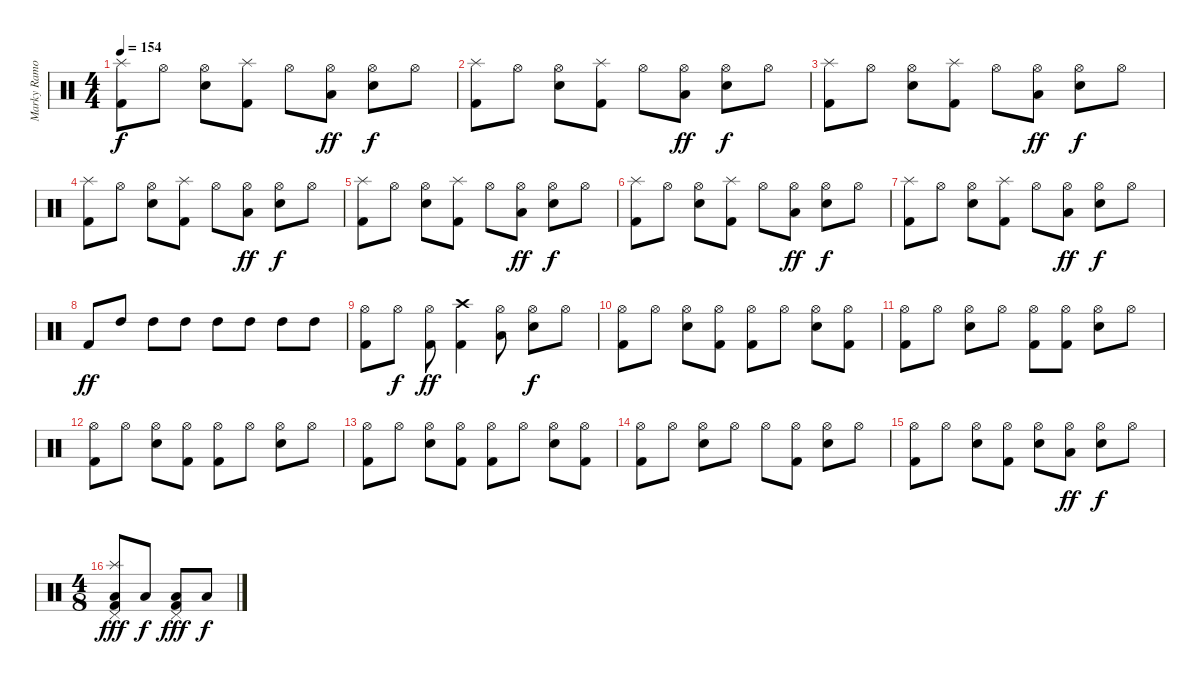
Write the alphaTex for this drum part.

\track ("Marky Ramone - Drums" "Marky Ramo") {instrument percussion}
\staff {score}
\articulation defaults
\ts (4 4)
\tempo 154
\clef neutral
\ks c
("Kick (hit) 2" "Splash (hit)").8{dy f} "Hi-Hat (open)".8 ("Snare (hit) 2" "Hi-Hat (open)").8 ("Kick (hit) 2" "Splash (hit)").8 "Hi-Hat (open)".8 ("Low Floor Tom (hit)" "Hi-Hat (open)").8{dy ff} ("Snare (hit) 2" "Hi-Hat (open)").8{dy f} "Hi-Hat (open)".8 |
("Kick (hit) 2" "Splash (hit)").8 "Hi-Hat (open)".8 ("Snare (hit) 2" "Hi-Hat (open)").8 ("Kick (hit) 2" "Splash (hit)").8 "Hi-Hat (open)".8 ("Low Floor Tom (hit)" "Hi-Hat (open)").8{dy ff} ("Snare (hit) 2" "Hi-Hat (open)").8{dy f} "Hi-Hat (open)".8 |
("Kick (hit) 2" "Splash (hit)").8 "Hi-Hat (open)".8 ("Snare (hit) 2" "Hi-Hat (open)").8 ("Kick (hit) 2" "Splash (hit)").8 "Hi-Hat (open)".8 ("Low Floor Tom (hit)" "Hi-Hat (open)").8{dy ff} ("Snare (hit) 2" "Hi-Hat (open)").8{dy f} "Hi-Hat (open)".8 |
("Kick (hit) 2" "Splash (hit)").8 "Hi-Hat (open)".8 ("Snare (hit) 2" "Hi-Hat (open)").8 ("Kick (hit) 2" "Splash (hit)").8 "Hi-Hat (open)".8 ("Low Floor Tom (hit)" "Hi-Hat (open)").8{dy ff} ("Snare (hit) 2" "Hi-Hat (open)").8{dy f} "Hi-Hat (open)".8 |
("Kick (hit) 2" "Splash (hit)").8 "Hi-Hat (open)".8 ("Snare (hit) 2" "Hi-Hat (open)").8 ("Kick (hit) 2" "Splash (hit)").8 "Hi-Hat (open)".8 ("Low Floor Tom (hit)" "Hi-Hat (open)").8{dy ff} ("Snare (hit) 2" "Hi-Hat (open)").8{dy f} "Hi-Hat (open)".8 |
("Kick (hit) 2" "Splash (hit)").8 "Hi-Hat (open)".8 ("Snare (hit) 2" "Hi-Hat (open)").8 ("Kick (hit) 2" "Splash (hit)").8 "Hi-Hat (open)".8 ("Low Floor Tom (hit)" "Hi-Hat (open)").8{dy ff} ("Snare (hit) 2" "Hi-Hat (open)").8{dy f} "Hi-Hat (open)".8 |
("Kick (hit) 2" "Splash (hit)").8 "Hi-Hat (open)".8 ("Snare (hit) 2" "Hi-Hat (open)").8 ("Kick (hit) 2" "Splash (hit)").8 "Hi-Hat (open)".8 ("Low Floor Tom (hit)" "Hi-Hat (open)").8{dy ff} ("Snare (hit) 2" "Hi-Hat (open)").8{dy f} "Hi-Hat (open)".8 |
"Kick (hit) 2".8{dy ff} "High Tom (hit)".8 "High Tom (hit)".8 "High Tom (hit)".8 "High Tom (hit)".8 "High Tom (hit)".8 "High Tom (hit)".8 "High Tom (hit)".8 |
("Kick (hit) 2" "Hi-Hat (open)").8 "Hi-Hat (open)".8{dy f} ("Kick (hit) 2" "Hi-Hat (open)").8{dy ff} ("Kick (hit) 2" "Crash high (hit)").4 ("Low Floor Tom (hit)" "Hi-Hat (open)").8 ("Snare (hit) 2" "Hi-Hat (open)").8{dy f} "Hi-Hat (open)".8 |
("Kick (hit) 2" "Hi-Hat (open)").8 "Hi-Hat (open)".8 ("Snare (hit) 2" "Hi-Hat (open)").8 ("Kick (hit) 2" "Hi-Hat (open)").8 ("Kick (hit) 2" "Hi-Hat (open)").8 "Hi-Hat (open)".8 ("Snare (hit) 2" "Hi-Hat (open)").8 ("Kick (hit) 2" "Hi-Hat (open)").8 |
("Kick (hit) 2" "Hi-Hat (open)").8 "Hi-Hat (open)".8 ("Snare (hit) 2" "Hi-Hat (open)").8 "Hi-Hat (open)".8 ("Kick (hit) 2" "Hi-Hat (open)").8 ("Kick (hit) 2" "Hi-Hat (open)").8 ("Snare (hit) 2" "Hi-Hat (open)").8 "Hi-Hat (open)".8 |
("Kick (hit) 2" "Hi-Hat (open)").8 "Hi-Hat (open)".8 ("Snare (hit) 2" "Hi-Hat (open)").8 ("Kick (hit) 2" "Hi-Hat (open)").8 ("Kick (hit) 2" "Hi-Hat (open)").8 "Hi-Hat (open)".8 ("Snare (hit) 2" "Hi-Hat (open)").8 "Hi-Hat (open)".8 |
("Kick (hit) 2" "Hi-Hat (open)").8 "Hi-Hat (open)".8 ("Snare (hit) 2" "Hi-Hat (open)").8 ("Kick (hit) 2" "Hi-Hat (open)").8 ("Kick (hit) 2" "Hi-Hat (open)").8 "Hi-Hat (open)".8 ("Snare (hit) 2" "Hi-Hat (open)").8 ("Kick (hit) 2" "Hi-Hat (open)").8 |
("Kick (hit) 2" "Hi-Hat (open)").8 "Hi-Hat (open)".8 ("Snare (hit) 2" "Hi-Hat (open)").8 "Hi-Hat (open)".8 "Hi-Hat (open)".8 ("Kick (hit) 2" "Hi-Hat (open)").8 ("Snare (hit) 2" "Hi-Hat (open)").8 "Hi-Hat (open)".8 |
("Kick (hit) 2" "Hi-Hat (open)").8 "Hi-Hat (open)".8 ("Snare (hit) 2" "Hi-Hat (open)").8 ("Kick (hit) 2" "Hi-Hat (open)").8 ("Snare (hit) 2" "Hi-Hat (open)").8 ("Low Floor Tom (hit)" "Hi-Hat (open)").8{dy ff} ("Snare (hit) 2" "Hi-Hat (open)").8{dy f} "Hi-Hat (open)".8 |
\ts (4 8)
("Low Floor Tom (hit)" "Splash (hit)" "Pedal Hi-Hat (hit)" "Kick (hit) 2").8{dy fff} "Low Floor Tom (hit)".8{dy f} ("Low Floor Tom (hit)" "Pedal Hi-Hat (hit)" "Kick (hit) 2").8{dy fff} "Low Floor Tom (hit)".8{dy f}
